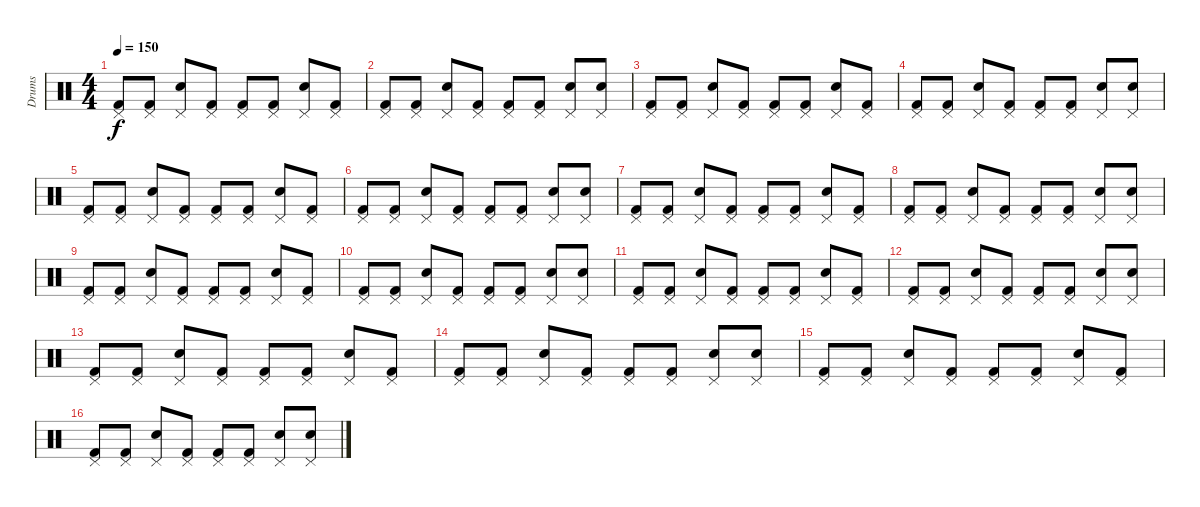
\track ("Drums" "Drums") {instrument percussion}
\staff {score}
\articulation defaults
\ts (4 4)
\tempo 150
\clef neutral
\ks c
("Pedal Hi-Hat (hit)" "Kick (hit) 2").8{dy f} ("Pedal Hi-Hat (hit)" "Kick (hit) 2").8 ("Pedal Hi-Hat (hit)" "Electric Snare (hit)").8 ("Pedal Hi-Hat (hit)" "Kick (hit) 2").8 ("Pedal Hi-Hat (hit)" "Kick (hit) 2").8 ("Pedal Hi-Hat (hit)" "Kick (hit) 2").8 ("Pedal Hi-Hat (hit)" "Electric Snare (hit)").8 ("Pedal Hi-Hat (hit)" "Kick (hit) 2").8 |
("Pedal Hi-Hat (hit)" "Kick (hit) 2").8 ("Pedal Hi-Hat (hit)" "Kick (hit) 2").8 ("Pedal Hi-Hat (hit)" "Electric Snare (hit)").8 ("Pedal Hi-Hat (hit)" "Kick (hit) 2").8 ("Pedal Hi-Hat (hit)" "Kick (hit) 2").8 ("Pedal Hi-Hat (hit)" "Kick (hit) 2").8 ("Pedal Hi-Hat (hit)" "Electric Snare (hit)").8 ("Pedal Hi-Hat (hit)" "Electric Snare (hit)").8 |
("Pedal Hi-Hat (hit)" "Kick (hit) 2").8 ("Pedal Hi-Hat (hit)" "Kick (hit) 2").8 ("Pedal Hi-Hat (hit)" "Electric Snare (hit)").8 ("Pedal Hi-Hat (hit)" "Kick (hit) 2").8 ("Pedal Hi-Hat (hit)" "Kick (hit) 2").8 ("Pedal Hi-Hat (hit)" "Kick (hit) 2").8 ("Pedal Hi-Hat (hit)" "Electric Snare (hit)").8 ("Pedal Hi-Hat (hit)" "Kick (hit) 2").8 |
("Pedal Hi-Hat (hit)" "Kick (hit) 2").8 ("Pedal Hi-Hat (hit)" "Kick (hit) 2").8 ("Pedal Hi-Hat (hit)" "Electric Snare (hit)").8 ("Pedal Hi-Hat (hit)" "Kick (hit) 2").8 ("Pedal Hi-Hat (hit)" "Kick (hit) 2").8 ("Pedal Hi-Hat (hit)" "Kick (hit) 2").8 ("Pedal Hi-Hat (hit)" "Electric Snare (hit)").8 ("Pedal Hi-Hat (hit)" "Electric Snare (hit)").8 |
("Pedal Hi-Hat (hit)" "Kick (hit) 2").8 ("Pedal Hi-Hat (hit)" "Kick (hit) 2").8 ("Pedal Hi-Hat (hit)" "Electric Snare (hit)").8 ("Pedal Hi-Hat (hit)" "Kick (hit) 2").8 ("Pedal Hi-Hat (hit)" "Kick (hit) 2").8 ("Pedal Hi-Hat (hit)" "Kick (hit) 2").8 ("Pedal Hi-Hat (hit)" "Electric Snare (hit)").8 ("Pedal Hi-Hat (hit)" "Kick (hit) 2").8 |
("Pedal Hi-Hat (hit)" "Kick (hit) 2").8 ("Pedal Hi-Hat (hit)" "Kick (hit) 2").8 ("Pedal Hi-Hat (hit)" "Electric Snare (hit)").8 ("Pedal Hi-Hat (hit)" "Kick (hit) 2").8 ("Pedal Hi-Hat (hit)" "Kick (hit) 2").8 ("Pedal Hi-Hat (hit)" "Kick (hit) 2").8 ("Pedal Hi-Hat (hit)" "Electric Snare (hit)").8 ("Pedal Hi-Hat (hit)" "Electric Snare (hit)").8 |
("Pedal Hi-Hat (hit)" "Kick (hit) 2").8 ("Pedal Hi-Hat (hit)" "Kick (hit) 2").8 ("Pedal Hi-Hat (hit)" "Electric Snare (hit)").8 ("Pedal Hi-Hat (hit)" "Kick (hit) 2").8 ("Pedal Hi-Hat (hit)" "Kick (hit) 2").8 ("Pedal Hi-Hat (hit)" "Kick (hit) 2").8 ("Pedal Hi-Hat (hit)" "Electric Snare (hit)").8 ("Pedal Hi-Hat (hit)" "Kick (hit) 2").8 |
("Pedal Hi-Hat (hit)" "Kick (hit) 2").8 ("Pedal Hi-Hat (hit)" "Kick (hit) 2").8 ("Pedal Hi-Hat (hit)" "Electric Snare (hit)").8 ("Pedal Hi-Hat (hit)" "Kick (hit) 2").8 ("Pedal Hi-Hat (hit)" "Kick (hit) 2").8 ("Pedal Hi-Hat (hit)" "Kick (hit) 2").8 ("Pedal Hi-Hat (hit)" "Electric Snare (hit)").8 ("Pedal Hi-Hat (hit)" "Electric Snare (hit)").8 |
("Pedal Hi-Hat (hit)" "Kick (hit) 2").8 ("Pedal Hi-Hat (hit)" "Kick (hit) 2").8 ("Pedal Hi-Hat (hit)" "Electric Snare (hit)").8 ("Pedal Hi-Hat (hit)" "Kick (hit) 2").8 ("Pedal Hi-Hat (hit)" "Kick (hit) 2").8 ("Pedal Hi-Hat (hit)" "Kick (hit) 2").8 ("Pedal Hi-Hat (hit)" "Electric Snare (hit)").8 ("Pedal Hi-Hat (hit)" "Kick (hit) 2").8 |
("Pedal Hi-Hat (hit)" "Kick (hit) 2").8 ("Pedal Hi-Hat (hit)" "Kick (hit) 2").8 ("Pedal Hi-Hat (hit)" "Electric Snare (hit)").8 ("Pedal Hi-Hat (hit)" "Kick (hit) 2").8 ("Pedal Hi-Hat (hit)" "Kick (hit) 2").8 ("Pedal Hi-Hat (hit)" "Kick (hit) 2").8 ("Pedal Hi-Hat (hit)" "Electric Snare (hit)").8 ("Pedal Hi-Hat (hit)" "Electric Snare (hit)").8 |
("Pedal Hi-Hat (hit)" "Kick (hit) 2").8 ("Pedal Hi-Hat (hit)" "Kick (hit) 2").8 ("Pedal Hi-Hat (hit)" "Electric Snare (hit)").8 ("Pedal Hi-Hat (hit)" "Kick (hit) 2").8 ("Pedal Hi-Hat (hit)" "Kick (hit) 2").8 ("Pedal Hi-Hat (hit)" "Kick (hit) 2").8 ("Pedal Hi-Hat (hit)" "Electric Snare (hit)").8 ("Pedal Hi-Hat (hit)" "Kick (hit) 2").8 |
("Pedal Hi-Hat (hit)" "Kick (hit) 2").8 ("Pedal Hi-Hat (hit)" "Kick (hit) 2").8 ("Pedal Hi-Hat (hit)" "Electric Snare (hit)").8 ("Pedal Hi-Hat (hit)" "Kick (hit) 2").8 ("Pedal Hi-Hat (hit)" "Kick (hit) 2").8 ("Pedal Hi-Hat (hit)" "Kick (hit) 2").8 ("Pedal Hi-Hat (hit)" "Electric Snare (hit)").8 ("Pedal Hi-Hat (hit)" "Electric Snare (hit)").8 |
("Pedal Hi-Hat (hit)" "Kick (hit) 2").8 ("Pedal Hi-Hat (hit)" "Kick (hit) 2").8 ("Pedal Hi-Hat (hit)" "Electric Snare (hit)").8 ("Pedal Hi-Hat (hit)" "Kick (hit) 2").8 ("Pedal Hi-Hat (hit)" "Kick (hit) 2").8 ("Pedal Hi-Hat (hit)" "Kick (hit) 2").8 ("Pedal Hi-Hat (hit)" "Electric Snare (hit)").8 ("Pedal Hi-Hat (hit)" "Kick (hit) 2").8 |
("Pedal Hi-Hat (hit)" "Kick (hit) 2").8 ("Pedal Hi-Hat (hit)" "Kick (hit) 2").8 ("Pedal Hi-Hat (hit)" "Electric Snare (hit)").8 ("Pedal Hi-Hat (hit)" "Kick (hit) 2").8 ("Pedal Hi-Hat (hit)" "Kick (hit) 2").8 ("Pedal Hi-Hat (hit)" "Kick (hit) 2").8 ("Pedal Hi-Hat (hit)" "Electric Snare (hit)").8 ("Pedal Hi-Hat (hit)" "Electric Snare (hit)").8 |
("Pedal Hi-Hat (hit)" "Kick (hit) 2").8 ("Pedal Hi-Hat (hit)" "Kick (hit) 2").8 ("Pedal Hi-Hat (hit)" "Electric Snare (hit)").8 ("Pedal Hi-Hat (hit)" "Kick (hit) 2").8 ("Pedal Hi-Hat (hit)" "Kick (hit) 2").8 ("Pedal Hi-Hat (hit)" "Kick (hit) 2").8 ("Pedal Hi-Hat (hit)" "Electric Snare (hit)").8 ("Pedal Hi-Hat (hit)" "Kick (hit) 2").8 |
("Pedal Hi-Hat (hit)" "Kick (hit) 2").8 ("Pedal Hi-Hat (hit)" "Kick (hit) 2").8 ("Pedal Hi-Hat (hit)" "Electric Snare (hit)").8 ("Pedal Hi-Hat (hit)" "Kick (hit) 2").8 ("Pedal Hi-Hat (hit)" "Kick (hit) 2").8 ("Pedal Hi-Hat (hit)" "Kick (hit) 2").8 ("Pedal Hi-Hat (hit)" "Electric Snare (hit)").8 ("Pedal Hi-Hat (hit)" "Electric Snare (hit)").8
